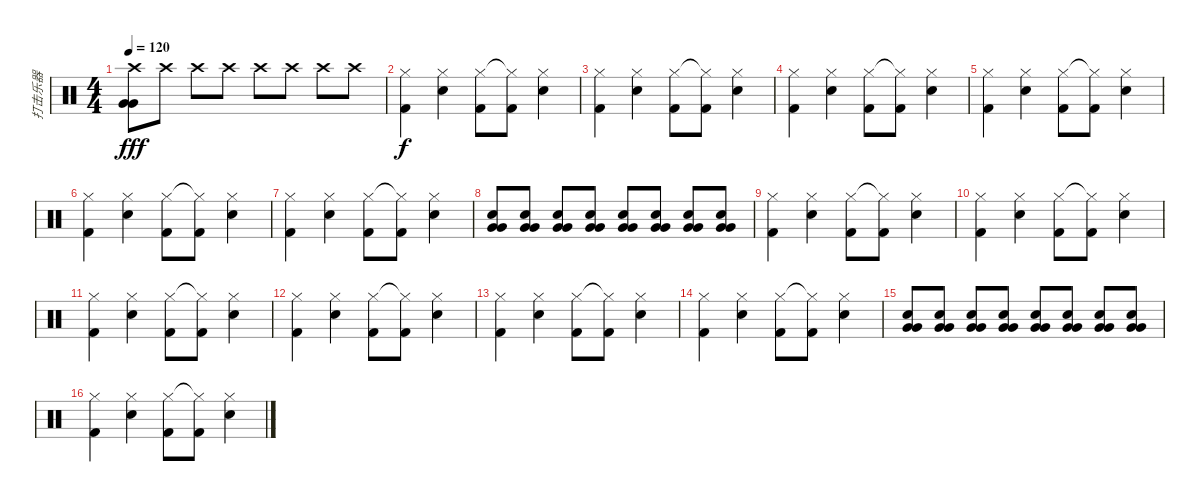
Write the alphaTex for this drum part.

\track ("打击乐器" "打击乐器") {instrument percussion}
\staff {score}
\articulation defaults
\ts (4 4)
\tempo 120
\clef neutral
\ks c
("Crash high (hit)" "Very Low Tom (hit)" "Very Low Tom (hit)").8{dy fff} "Crash high (hit)".8 "Crash high (hit)".8 "Crash high (hit)".8 "Crash high (hit)".8 "Crash high (hit)".8 "Crash high (hit)".8 "Crash high (hit)".8 |
("Hi-Hat (closed)" "Kick (hit) 2").4{dy f} ("Hi-Hat (closed)" "Snare (hit) 2").4 ("Hi-Hat (closed)" "Kick (hit) 2").8 ("Hi-Hat (closed)"{t} "Kick (hit) 2").8 ("Hi-Hat (closed)" "Snare (hit) 2").4 |
("Hi-Hat (closed)" "Kick (hit) 2").4 ("Hi-Hat (closed)" "Snare (hit) 2").4 ("Hi-Hat (closed)" "Kick (hit) 2").8 ("Hi-Hat (closed)"{t} "Kick (hit) 2").8 ("Hi-Hat (closed)" "Snare (hit) 2").4 |
("Hi-Hat (closed)" "Kick (hit) 2").4 ("Hi-Hat (closed)" "Snare (hit) 2").4 ("Hi-Hat (closed)" "Kick (hit) 2").8 ("Hi-Hat (closed)"{t} "Kick (hit) 2").8 ("Hi-Hat (closed)" "Snare (hit) 2").4 |
("Hi-Hat (closed)" "Kick (hit) 2").4 ("Hi-Hat (closed)" "Snare (hit) 2").4 ("Hi-Hat (closed)" "Kick (hit) 2").8 ("Hi-Hat (closed)"{t} "Kick (hit) 2").8 ("Hi-Hat (closed)" "Snare (hit) 2").4 |
("Hi-Hat (closed)" "Kick (hit) 2").4 ("Hi-Hat (closed)" "Snare (hit) 2").4 ("Hi-Hat (closed)" "Kick (hit) 2").8 ("Hi-Hat (closed)"{t} "Kick (hit) 2").8 ("Hi-Hat (closed)" "Snare (hit) 2").4 |
("Hi-Hat (closed)" "Kick (hit) 2").4 ("Hi-Hat (closed)" "Snare (hit) 2").4 ("Hi-Hat (closed)" "Kick (hit) 2").8 ("Hi-Hat (closed)"{t} "Kick (hit) 2").8 ("Hi-Hat (closed)" "Snare (hit) 2").4 |
("Electric Snare (hit)" "Very Low Tom (hit)" "Very Low Tom (hit)").8 ("Electric Snare (hit)" "Very Low Tom (hit)" "Very Low Tom (hit)").8 ("Electric Snare (hit)" "Very Low Tom (hit)" "Very Low Tom (hit)").8 ("Electric Snare (hit)" "Very Low Tom (hit)" "Very Low Tom (hit)").8 ("Electric Snare (hit)" "Very Low Tom (hit)" "Very Low Tom (hit)").8 ("Electric Snare (hit)" "Very Low Tom (hit)" "Very Low Tom (hit)").8 ("Electric Snare (hit)" "Very Low Tom (hit)" "Very Low Tom (hit)").8 ("Electric Snare (hit)" "Very Low Tom (hit)" "Very Low Tom (hit)").8 |
("Hi-Hat (closed)" "Kick (hit) 2").4 ("Hi-Hat (closed)" "Snare (hit) 2").4 ("Hi-Hat (closed)" "Kick (hit) 2").8 ("Hi-Hat (closed)"{t} "Kick (hit) 2").8 ("Hi-Hat (closed)" "Snare (hit) 2").4 |
("Hi-Hat (closed)" "Kick (hit) 2").4 ("Hi-Hat (closed)" "Snare (hit) 2").4 ("Hi-Hat (closed)" "Kick (hit) 2").8 ("Hi-Hat (closed)"{t} "Kick (hit) 2").8 ("Hi-Hat (closed)" "Snare (hit) 2").4 |
("Hi-Hat (closed)" "Kick (hit) 2").4 ("Hi-Hat (closed)" "Snare (hit) 2").4 ("Hi-Hat (closed)" "Kick (hit) 2").8 ("Hi-Hat (closed)"{t} "Kick (hit) 2").8 ("Hi-Hat (closed)" "Snare (hit) 2").4 |
("Hi-Hat (closed)" "Kick (hit) 2").4 ("Hi-Hat (closed)" "Snare (hit) 2").4 ("Hi-Hat (closed)" "Kick (hit) 2").8 ("Hi-Hat (closed)"{t} "Kick (hit) 2").8 ("Hi-Hat (closed)" "Snare (hit) 2").4 |
("Hi-Hat (closed)" "Kick (hit) 2").4 ("Hi-Hat (closed)" "Snare (hit) 2").4 ("Hi-Hat (closed)" "Kick (hit) 2").8 ("Hi-Hat (closed)"{t} "Kick (hit) 2").8 ("Hi-Hat (closed)" "Snare (hit) 2").4 |
("Hi-Hat (closed)" "Kick (hit) 2").4 ("Hi-Hat (closed)" "Snare (hit) 2").4 ("Hi-Hat (closed)" "Kick (hit) 2").8 ("Hi-Hat (closed)"{t} "Kick (hit) 2").8 ("Hi-Hat (closed)" "Snare (hit) 2").4 |
("Electric Snare (hit)" "Very Low Tom (hit)" "Very Low Tom (hit)").8 ("Electric Snare (hit)" "Very Low Tom (hit)" "Very Low Tom (hit)").8 ("Electric Snare (hit)" "Very Low Tom (hit)" "Very Low Tom (hit)").8 ("Electric Snare (hit)" "Very Low Tom (hit)" "Very Low Tom (hit)").8 ("Electric Snare (hit)" "Very Low Tom (hit)" "Very Low Tom (hit)").8 ("Electric Snare (hit)" "Very Low Tom (hit)" "Very Low Tom (hit)").8 ("Electric Snare (hit)" "Very Low Tom (hit)" "Very Low Tom (hit)").8 ("Electric Snare (hit)" "Very Low Tom (hit)" "Very Low Tom (hit)").8 |
("Hi-Hat (closed)" "Kick (hit) 2").4 ("Hi-Hat (closed)" "Snare (hit) 2").4 ("Hi-Hat (closed)" "Kick (hit) 2").8 ("Hi-Hat (closed)"{t} "Kick (hit) 2").8 ("Hi-Hat (closed)" "Snare (hit) 2").4
